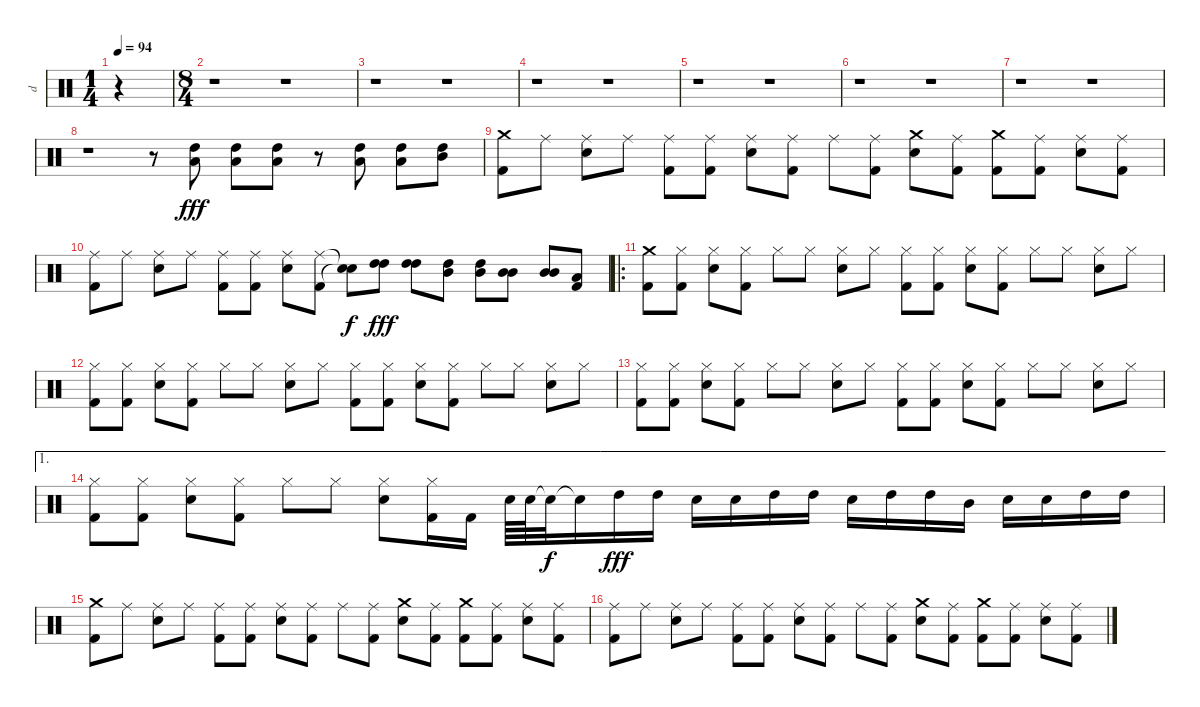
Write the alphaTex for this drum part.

\track ("d" "d") {instrument percussion}
\staff {score}
\articulation defaults
\ts (1 4)
\tempo 94
\clef neutral
\ks c
r.4{dy fff} |
\ts (8 4)
r.1 r.1 |
r.1 r.1 |
r.1 r.1 |
r.1 r.1 |
r.1 r.1 |
r.1 r.1 |
r.1 r.8 ("High Tom (hit)" "Low Tom (hit)").8 ("High Tom (hit)" "Low Tom (hit)").8 ("High Tom (hit)" "Low Tom (hit)").8 r.8 ("High Tom (hit)" "Low Tom (hit)").8 ("High Tom (hit)" "Low Tom (hit)").8 ("High Tom (hit)" "Mid Tom (hit)").8 |
("Crash medium (hit)" "Kick (hit) 2").8 "Ride (middle)".8 ("Ride (middle)" "Snare (hit) 2").8 "Ride (middle)".8 ("Ride (middle)" "Kick (hit) 2").8 ("Ride (middle)" "Kick (hit) 2").8 ("Ride (middle)" "Snare (hit) 2").8 ("Ride (middle)" "Kick (hit) 2").8 "Ride (middle)".8 ("Ride (middle)" "Kick (hit) 2").8 ("Crash medium (hit)" "Snare (hit) 2").8 ("Ride (middle)" "Kick (hit) 2").8 ("Crash medium (hit)" "Kick (hit) 2").8 ("Ride (middle)" "Kick (hit) 2").8 ("Ride (middle)" "Snare (hit) 2").8 ("Ride (middle)" "Kick (hit) 2").8 |
("Ride (middle)" "Kick (hit) 2").8 "Ride (middle)".8 ("Ride (middle)" "Snare (hit) 2").8 "Ride (middle)".8 ("Ride (middle)" "Kick (hit) 2").8 ("Ride (middle)" "Kick (hit) 2").8 ("Ride (middle)" "Snare (hit) 2").8 ("Ride (middle)" "Kick (hit) 2").8 ("Snare (hit)"{t} "Snare (hit)"{t}).8{dy f} ("High Tom (hit)" "High Tom (hit)").8{dy fff} ("High Tom (hit)" "High Tom (hit)").8 ("High Tom (hit)" "Mid Tom (hit)").8 ("High Tom (hit)" "Mid Tom (hit)").8 ("Mid Tom (hit)" "Mid Tom (hit)").8 ("Mid Tom (hit)" "Mid Tom (hit)").8 ("Low Tom (hit)" "Kick (hit) 2").8 |
\ro
("Crash medium (hit)" "Kick (hit) 2").8 ("Hi-Hat (closed)" "Kick (hit) 2").8 ("Hi-Hat (closed)" "Snare (hit) 2").8 ("Hi-Hat (closed)" "Kick (hit) 2").8 "Hi-Hat (closed)".8 "Hi-Hat (closed)".8 ("Hi-Hat (closed)" "Snare (hit) 2").8 "Hi-Hat (closed)".8 ("Hi-Hat (closed)" "Kick (hit) 2").8 ("Hi-Hat (closed)" "Kick (hit) 2").8 ("Hi-Hat (closed)" "Snare (hit) 2").8 ("Hi-Hat (closed)" "Kick (hit) 2").8 "Hi-Hat (closed)".8 "Hi-Hat (closed)".8 ("Hi-Hat (closed)" "Snare (hit) 2").8 "Hi-Hat (closed)".8 |
("Hi-Hat (closed)" "Kick (hit) 2").8 ("Hi-Hat (closed)" "Kick (hit) 2").8 ("Hi-Hat (closed)" "Snare (hit) 2").8 ("Hi-Hat (closed)" "Kick (hit) 2").8 "Hi-Hat (closed)".8 "Hi-Hat (closed)".8 ("Hi-Hat (closed)" "Snare (hit) 2").8 "Hi-Hat (closed)".8 ("Hi-Hat (closed)" "Kick (hit) 2").8 ("Hi-Hat (closed)" "Kick (hit) 2").8 ("Hi-Hat (closed)" "Snare (hit) 2").8 ("Hi-Hat (closed)" "Kick (hit) 2").8 "Hi-Hat (closed)".8 "Hi-Hat (closed)".8 ("Hi-Hat (closed)" "Snare (hit) 2").8 "Hi-Hat (closed)".8 |
("Hi-Hat (closed)" "Kick (hit) 2").8 ("Hi-Hat (closed)" "Kick (hit) 2").8 ("Hi-Hat (closed)" "Snare (hit) 2").8 ("Hi-Hat (closed)" "Kick (hit) 2").8 "Hi-Hat (closed)".8 "Hi-Hat (closed)".8 ("Hi-Hat (closed)" "Snare (hit) 2").8 "Hi-Hat (closed)".8 ("Hi-Hat (closed)" "Kick (hit) 2").8 ("Hi-Hat (closed)" "Kick (hit) 2").8 ("Hi-Hat (closed)" "Snare (hit) 2").8 ("Hi-Hat (closed)" "Kick (hit) 2").8 "Hi-Hat (closed)".8 "Hi-Hat (closed)".8 ("Hi-Hat (closed)" "Snare (hit) 2").8 "Hi-Hat (closed)".8 |
\ae 1
("Hi-Hat (closed)" "Kick (hit) 2").8 ("Hi-Hat (closed)" "Kick (hit) 2").8 ("Hi-Hat (closed)" "Snare (hit) 2").8 ("Hi-Hat (closed)" "Kick (hit) 2").8 "Hi-Hat (closed)".8 "Hi-Hat (closed)".8 ("Hi-Hat (closed)" "Snare (hit) 2").8 ("Hi-Hat (closed)" "Kick (hit) 2").16 "Kick (hit) 2".16 "Snare (hit) 2".64 "Snare (hit) 2".64 "Snare (hit)"{t}.32{dy f} "Snare (hit)"{t}.16 "High Tom (hit)".16{dy fff} "High Tom (hit)".16 "Snare (hit) 2".16 "Snare (hit) 2".16 "High Tom (hit)".16 "High Tom (hit)".16 "Snare (hit) 2".16 "High Tom (hit)".16 "High Tom (hit)".16 "Mid Tom (hit)".16 "Snare (hit) 2".16 "Snare (hit) 2".16 "High Tom (hit)".16 "High Tom (hit)".16 |
("Crash medium (hit)" "Kick (hit) 2").8 "Ride (middle)".8 ("Ride (middle)" "Snare (hit) 2").8 "Ride (middle)".8 ("Ride (middle)" "Kick (hit) 2").8 ("Ride (middle)" "Kick (hit) 2").8 ("Ride (middle)" "Snare (hit) 2").8 ("Ride (middle)" "Kick (hit) 2").8 "Ride (middle)".8 ("Ride (middle)" "Kick (hit) 2").8 ("Crash medium (hit)" "Snare (hit) 2").8 ("Ride (middle)" "Kick (hit) 2").8 ("Crash medium (hit)" "Kick (hit) 2").8 ("Ride (middle)" "Kick (hit) 2").8 ("Ride (middle)" "Snare (hit) 2").8 ("Ride (middle)" "Kick (hit) 2").8 |
("Ride (middle)" "Kick (hit) 2").8 "Ride (middle)".8 ("Ride (middle)" "Snare (hit) 2").8 "Ride (middle)".8 ("Ride (middle)" "Kick (hit) 2").8 ("Ride (middle)" "Kick (hit) 2").8 ("Ride (middle)" "Snare (hit) 2").8 ("Ride (middle)" "Kick (hit) 2").8 "Ride (middle)".8 ("Ride (middle)" "Kick (hit) 2").8 ("Crash medium (hit)" "Snare (hit) 2").8 ("Ride (middle)" "Kick (hit) 2").8 ("Crash medium (hit)" "Kick (hit) 2").8 ("Ride (middle)" "Kick (hit) 2").8 ("Ride (middle)" "Snare (hit) 2").8 ("Ride (middle)" "Kick (hit) 2").8
